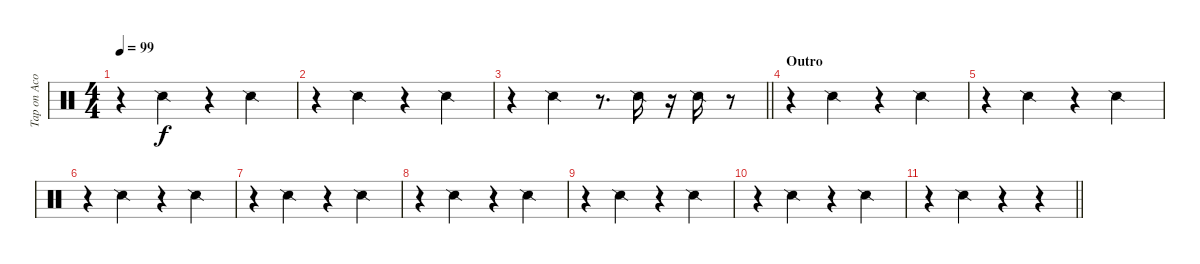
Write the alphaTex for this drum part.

\track ("Tap on Acoustic" "Tap on Aco") {instrument percussion}
\staff {score}
\articulation defaults
\ts (4 4)
\tempo 99
\clef neutral
\ks c
r.4{dy f} "Snare (side stick) 2".4 r.4 "Snare (side stick) 2".4 |
r.4 "Snare (side stick) 2".4 r.4 "Snare (side stick) 2".4 |
\barLineRight lightlight
r.4 "Snare (side stick) 2".4 r.8{d} "Snare (side stick) 2".16 r.16 "Snare (side stick) 2".16 r.8 |
\section ("" "Outro")
r.4 "Snare (side stick) 2".4 r.4 "Snare (side stick) 2".4 |
r.4 "Snare (side stick) 2".4 r.4 "Snare (side stick) 2".4 |
r.4 "Snare (side stick) 2".4 r.4 "Snare (side stick) 2".4 |
r.4 "Snare (side stick) 2".4 r.4 "Snare (side stick) 2".4 |
r.4 "Snare (side stick) 2".4 r.4 "Snare (side stick) 2".4 |
r.4 "Snare (side stick) 2".4 r.4 "Snare (side stick) 2".4 |
r.4 "Snare (side stick) 2".4 r.4 "Snare (side stick) 2".4 |
\barLineRight lightlight
r.4 "Snare (side stick) 2".4 r.4 r.4
